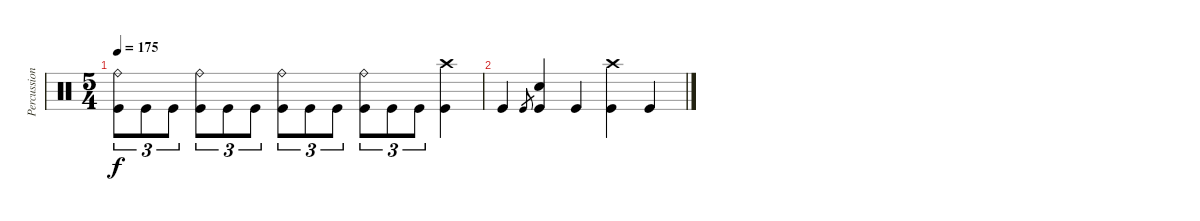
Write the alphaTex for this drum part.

\track ("Percussion" "Percussion") {instrument percussion}
\staff {score}
\articulation defaults
\ts (5 4)
\tempo 175
\clef neutral
\ks c
("Ride (bell)" "Kick (hit)").8{tu (3 2) dy f} "Kick (hit)".8{tu (3 2)} "Kick (hit)".8{tu (3 2)} ("Ride (bell)" "Kick (hit)").8{tu (3 2)} "Kick (hit)".8{tu (3 2)} "Kick (hit)".8{tu (3 2)} ("Ride (bell)" "Kick (hit)").8{tu (3 2)} "Kick (hit)".8{tu (3 2)} "Kick (hit)".8{tu (3 2)} ("Ride (bell)" "Kick (hit)").8{tu (3 2)} "Kick (hit)".8{tu (3 2)} "Kick (hit)".8{tu (3 2)} ("Crash high (hit)" "Kick (hit)").4 |
"Kick (hit)".4 "Kick (hit)".8{gr} ("Electric Snare (hit)" "Kick (hit)").4 "Kick (hit)".4 ("Crash high (hit)" "Kick (hit)").4 "Kick (hit)".4
